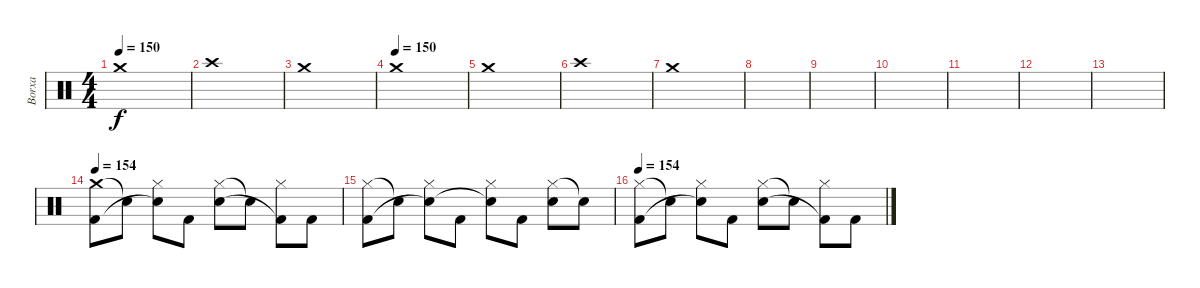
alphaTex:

\track ("Borxa" "Borxa") {instrument percussion}
\staff {score}
\articulation defaults
\ts (4 4)
\tempo 150
\clef neutral
\ks c "Crash medium (hit)".1{dy f}
|
"Crash high (hit)".1 |
"Crash medium (hit)".1 |
\tempo (150)
"Crash medium (hit)".1 |
"Crash medium (hit)".1 |
"Crash high (hit)".1 |
"Crash medium (hit)".1 |
|
|
|
|
|
|
\tempo 154
("Crash medium (hit)" "Kick (hit) 2").8 "Snare (hit)"{t}.8 ("Hi-Hat (closed)" "Snare (hit)"{t}).8 "Kick (hit) 2".8 ("Hi-Hat (closed)" "Snare (hit) 2").8 "Snare (hit)"{t}.8 ("Hi-Hat (closed)" "Kick (hit) 2"{t}).8 "Kick (hit) 2".8 |
("Hi-Hat (closed)" "Kick (hit) 2").8 "Snare (hit)"{t}.8 ("Hi-Hat (closed)" "Snare (hit)"{t}).8 "Kick (hit) 2".8 ("Hi-Hat (closed)" "Snare (hit)"{t}).8 "Kick (hit) 2".8 ("Hi-Hat (closed)" "Snare (hit) 2").8 "Snare (hit)"{t}.8 |
\tempo 154
("Hi-Hat (closed)" "Kick (hit) 2").8 "Snare (hit)"{t}.8 ("Hi-Hat (closed)" "Snare (hit)"{t}).8 "Kick (hit) 2".8 ("Hi-Hat (closed)" "Snare (hit) 2").8 "Snare (hit)"{t}.8 ("Hi-Hat (closed)" "Kick (hit) 2"{t}).8 "Kick (hit) 2".8
